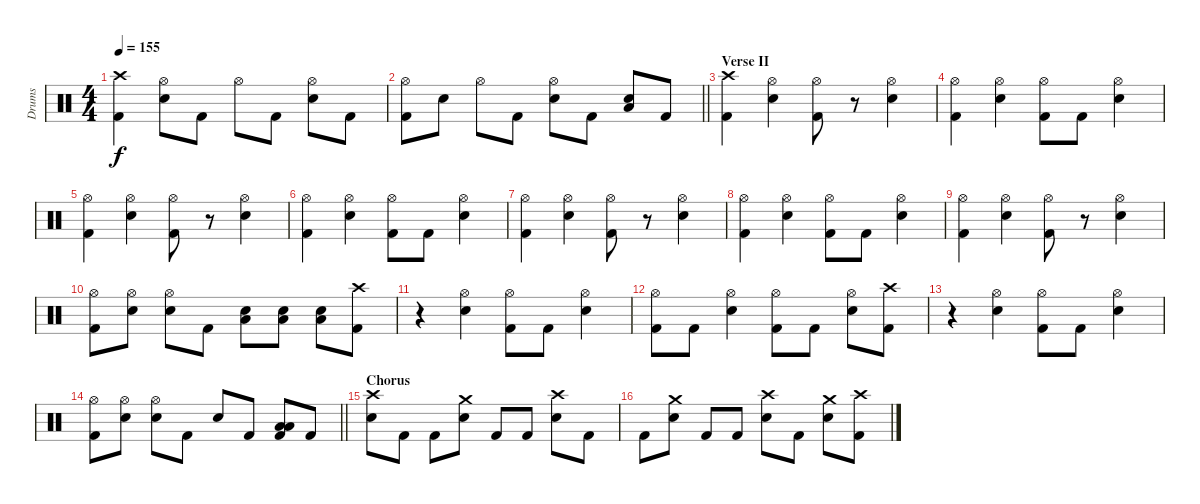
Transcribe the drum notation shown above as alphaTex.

\track ("Drums" "Drums") {instrument percussion}
\staff {score}
\articulation defaults
\ts (4 4)
\tempo 155
\clef neutral
\ks c
("Crash high (hit)" "Kick (hit) 2").4{dy f} ("Hi-Hat (open)" "Electric Snare (hit)").8 "Kick (hit) 2".8 "Hi-Hat (open)".8 "Kick (hit) 2".8 ("Hi-Hat (open)" "Electric Snare (hit)").8 "Kick (hit) 2".8 |
\barLineRight lightlight
("Hi-Hat (open)" "Kick (hit) 2").8 "Electric Snare (hit)".8 "Hi-Hat (open)".8 "Kick (hit) 2".8 ("Hi-Hat (open)" "Electric Snare (hit)").8 "Kick (hit) 2".8 ("Low Floor Tom (hit)" "Electric Snare (hit)").8 "Kick (hit) 2".8 |
\section ("" "Verse II")
("Crash high (hit)" "Kick (hit) 2").4 ("Hi-Hat (open)" "Electric Snare (hit)").4 ("Hi-Hat (open)" "Kick (hit) 2").8 r.8 ("Hi-Hat (open)" "Electric Snare (hit)").4 |
("Hi-Hat (open)" "Kick (hit) 2").4 ("Hi-Hat (open)" "Electric Snare (hit)").4 ("Hi-Hat (open)" "Kick (hit) 2").8 "Kick (hit) 2".8 ("Hi-Hat (open)" "Electric Snare (hit)").4 |
("Hi-Hat (open)" "Kick (hit) 2").4 ("Hi-Hat (open)" "Electric Snare (hit)").4 ("Hi-Hat (open)" "Kick (hit) 2").8 r.8 ("Hi-Hat (open)" "Electric Snare (hit)").4 |
("Hi-Hat (open)" "Kick (hit) 2").4 ("Hi-Hat (open)" "Electric Snare (hit)").4 ("Hi-Hat (open)" "Kick (hit) 2").8 "Kick (hit) 2".8 ("Hi-Hat (open)" "Electric Snare (hit)").4 |
("Hi-Hat (open)" "Kick (hit) 2").4 ("Hi-Hat (open)" "Electric Snare (hit)").4 ("Hi-Hat (open)" "Kick (hit) 2").8 r.8 ("Hi-Hat (open)" "Electric Snare (hit)").4 |
("Hi-Hat (open)" "Kick (hit) 2").4 ("Hi-Hat (open)" "Electric Snare (hit)").4 ("Hi-Hat (open)" "Kick (hit) 2").8 "Kick (hit) 2".8 ("Hi-Hat (open)" "Electric Snare (hit)").4 |
("Hi-Hat (open)" "Kick (hit) 2").4 ("Hi-Hat (open)" "Electric Snare (hit)").4 ("Hi-Hat (open)" "Kick (hit) 2").8 r.8 ("Hi-Hat (open)" "Electric Snare (hit)").4 |
("Hi-Hat (open)" "Kick (hit) 2").8 ("Hi-Hat (open)" "Electric Snare (hit)").8 ("Hi-Hat (open)" "Electric Snare (hit)").8 "Kick (hit) 2".8 ("Low Floor Tom (hit)" "Electric Snare (hit)").8 ("Low Floor Tom (hit)" "Electric Snare (hit)").8 ("Low Floor Tom (hit)" "Electric Snare (hit)").8 ("Crash high (hit)" "Kick (hit) 2").8 |
r.4 ("Hi-Hat (open)" "Electric Snare (hit)").4 ("Hi-Hat (open)" "Kick (hit) 2").8 "Kick (hit) 2".8 ("Hi-Hat (open)" "Electric Snare (hit)").4 |
("Hi-Hat (open)" "Kick (hit) 2").8 "Kick (hit) 2".8 ("Hi-Hat (open)" "Electric Snare (hit)").4 ("Hi-Hat (open)" "Kick (hit) 2").8 "Kick (hit) 2".8 ("Hi-Hat (open)" "Electric Snare (hit)").8 ("Crash high (hit)" "Kick (hit) 2").8 |
r.4 ("Hi-Hat (open)" "Electric Snare (hit)").4 ("Hi-Hat (open)" "Kick (hit) 2").8 "Kick (hit) 2".8 ("Hi-Hat (open)" "Electric Snare (hit)").4 |
\barLineRight lightlight
("Hi-Hat (open)" "Kick (hit) 2").8 ("Hi-Hat (open)" "Electric Snare (hit)").8 ("Hi-Hat (open)" "Electric Snare (hit)").8 "Kick (hit) 2".8 "Electric Snare (hit)".8 "Kick (hit) 2".8 ("Low Floor Tom (hit)" "Low Tom (hit)" "Kick (hit) 2").8 "Kick (hit) 2".8 |
\section ("" "Chorus")
("Crash high (hit)" "Electric Snare (hit)").8 "Kick (hit) 2".8 "Kick (hit) 2".8 ("Crash medium (hit)" "Electric Snare (hit)").8 "Kick (hit) 2".8 "Kick (hit) 2".8 ("Crash high (hit)" "Electric Snare (hit)").8 "Kick (hit) 2".8 |
"Kick (hit) 2".8 ("Crash medium (hit)" "Electric Snare (hit)").8 "Kick (hit) 2".8 "Kick (hit) 2".8 ("Crash high (hit)" "Electric Snare (hit)").8 "Kick (hit) 2".8 ("Crash medium (hit)" "Electric Snare (hit)").8 ("Kick (hit) 2" "Crash high (hit)").8
